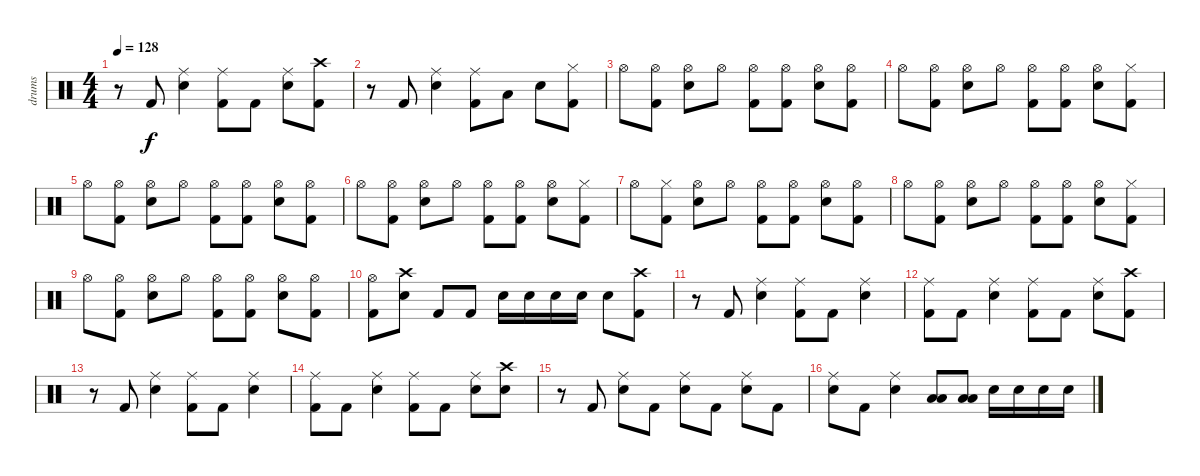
\track ("drums" "drums") {instrument percussion}
\staff {score}
\articulation defaults
\ts (4 4)
\tempo 128
\clef neutral
\ks c
r.8{dy f} "Kick (hit) 2".8 ("Ride (middle)" "Electric Snare (hit)").4 ("Ride (middle)" "Kick (hit) 2").8 "Kick (hit) 2".8 ("Ride (middle)" "Electric Snare (hit)").8 ("Crash high (hit)" "Kick (hit) 2").8 |
r.8 "Kick (hit) 2".8 ("Ride (middle)" "Electric Snare (hit)").4 ("Ride (middle)" "Kick (hit) 2").8 "Low Tom (hit)".8 "Electric Snare (hit)".8 ("Hi-Hat (closed)" "Kick (hit) 2").8 |
"Hi-Hat (open)".8 ("Hi-Hat (open)" "Kick (hit) 2").8 ("Hi-Hat (open)" "Electric Snare (hit)").8 "Hi-Hat (open)".8 ("Hi-Hat (open)" "Kick (hit) 2").8 ("Hi-Hat (open)" "Kick (hit) 2").8 ("Hi-Hat (open)" "Electric Snare (hit)").8 ("Hi-Hat (open)" "Kick (hit) 2").8 |
"Hi-Hat (open)".8 ("Hi-Hat (open)" "Kick (hit) 2").8 ("Hi-Hat (open)" "Electric Snare (hit)").8 "Hi-Hat (open)".8 ("Hi-Hat (open)" "Kick (hit) 2").8 ("Hi-Hat (open)" "Kick (hit) 2").8 ("Hi-Hat (open)" "Electric Snare (hit)").8 ("Hi-Hat (closed)" "Kick (hit) 2").8 |
"Hi-Hat (open)".8 ("Hi-Hat (open)" "Kick (hit) 2").8 ("Hi-Hat (open)" "Electric Snare (hit)").8 "Hi-Hat (open)".8 ("Hi-Hat (open)" "Kick (hit) 2").8 ("Hi-Hat (open)" "Kick (hit) 2").8 ("Hi-Hat (open)" "Electric Snare (hit)").8 ("Hi-Hat (open)" "Kick (hit) 2").8 |
"Hi-Hat (open)".8 ("Hi-Hat (open)" "Kick (hit) 2").8 ("Hi-Hat (open)" "Electric Snare (hit)").8 "Hi-Hat (open)".8 ("Hi-Hat (open)" "Kick (hit) 2").8 ("Hi-Hat (open)" "Kick (hit) 2").8 ("Hi-Hat (open)" "Electric Snare (hit)").8 ("Hi-Hat (closed)" "Kick (hit) 2").8 |
"Hi-Hat (open)".8 ("Hi-Hat (closed)" "Kick (hit) 2").8 ("Hi-Hat (open)" "Electric Snare (hit)").8 "Hi-Hat (open)".8 ("Hi-Hat (open)" "Kick (hit) 2").8 ("Hi-Hat (open)" "Kick (hit) 2").8 ("Hi-Hat (open)" "Electric Snare (hit)").8 ("Hi-Hat (open)" "Kick (hit) 2").8 |
"Hi-Hat (open)".8 ("Hi-Hat (open)" "Kick (hit) 2").8 ("Hi-Hat (open)" "Electric Snare (hit)").8 "Hi-Hat (open)".8 ("Hi-Hat (open)" "Kick (hit) 2").8 ("Hi-Hat (open)" "Kick (hit) 2").8 ("Hi-Hat (open)" "Electric Snare (hit)").8 ("Hi-Hat (closed)" "Kick (hit) 2").8 |
"Hi-Hat (open)".8 ("Hi-Hat (open)" "Kick (hit) 2").8 ("Hi-Hat (open)" "Electric Snare (hit)").8 "Hi-Hat (open)".8 ("Hi-Hat (open)" "Kick (hit) 2").8 ("Hi-Hat (open)" "Kick (hit) 2").8 ("Hi-Hat (open)" "Electric Snare (hit)").8 ("Hi-Hat (open)" "Kick (hit) 2").8 |
("Hi-Hat (open)" "Kick (hit) 2").8 ("Crash high (hit)" "Electric Snare (hit)").8 "Kick (hit) 2".8 "Kick (hit) 2".8 "Electric Snare (hit)".16 "Electric Snare (hit)".16 "Electric Snare (hit)".16 "Electric Snare (hit)".16 "Electric Snare (hit)".8 ("Crash high (hit)" "Kick (hit) 2").8 |
r.8 "Kick (hit) 2".8 ("Ride (middle)" "Electric Snare (hit)").4 ("Ride (middle)" "Kick (hit) 2").8 "Kick (hit) 2".8 ("Ride (middle)" "Electric Snare (hit)").4 |
("Ride (middle)" "Kick (hit) 2").8 "Kick (hit) 2".8 ("Ride (middle)" "Electric Snare (hit)").4 ("Ride (middle)" "Kick (hit) 2").8 "Kick (hit) 2".8 ("Ride (middle)" "Electric Snare (hit)").8 ("Crash high (hit)" "Kick (hit) 2").8 |
r.8 "Kick (hit) 2".8 ("Ride (middle)" "Electric Snare (hit)").4 ("Ride (middle)" "Kick (hit) 2").8 "Kick (hit) 2".8 ("Ride (middle)" "Electric Snare (hit)").4 |
("Ride (middle)" "Kick (hit) 2").8 "Kick (hit) 2".8 ("Ride (middle)" "Electric Snare (hit)").4 ("Ride (middle)" "Kick (hit) 2").8 "Kick (hit) 2".8 ("Ride (middle)" "Electric Snare (hit)").8 ("Crash high (hit)" "Electric Snare (hit)").8 |
r.8 "Kick (hit) 2".8 ("Ride (middle)" "Electric Snare (hit)").8 "Kick (hit) 2".8 ("Ride (middle)" "Electric Snare (hit)").8 "Kick (hit) 2".8 ("Ride (middle)" "Electric Snare (hit)").8 "Kick (hit) 2".8 |
("Ride (middle)" "Electric Snare (hit)").8 "Kick (hit) 2".8 ("Ride (middle)" "Electric Snare (hit)").4 ("Low Tom (hit)" "Low Floor Tom (hit)").8 ("Low Tom (hit)" "Low Floor Tom (hit)").8 "Electric Snare (hit)".16 "Electric Snare (hit)".16 "Electric Snare (hit)".16 "Electric Snare (hit)".16
